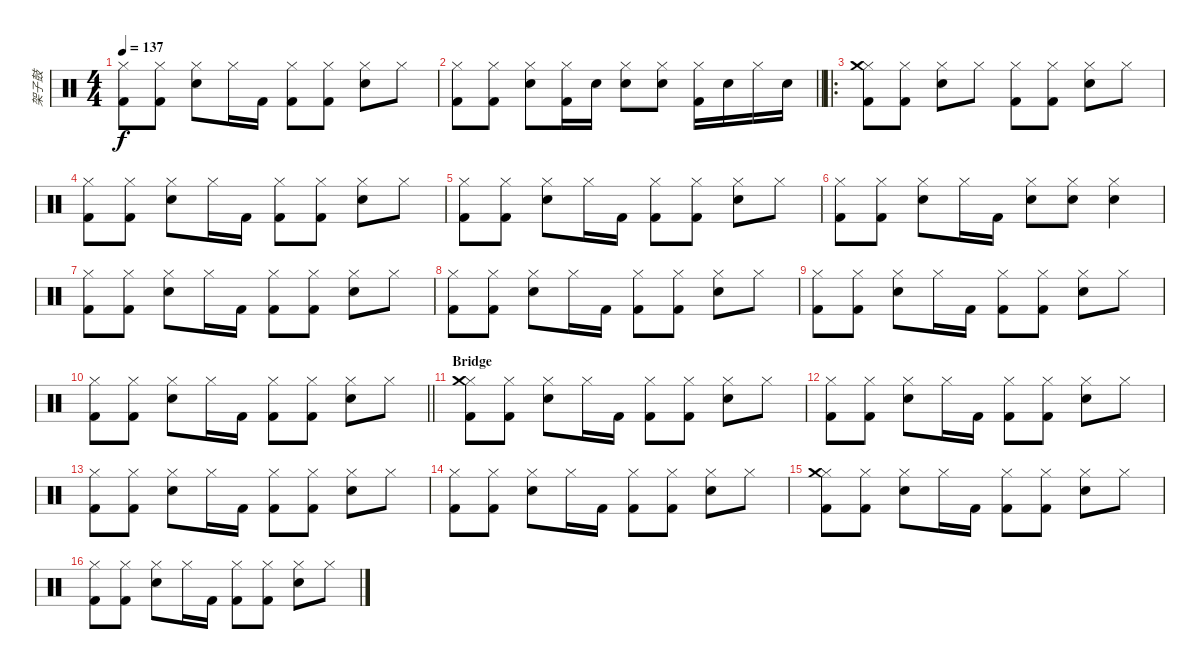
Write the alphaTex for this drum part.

\track ("架子鼓" "架子鼓") {instrument percussion}
\staff {score}
\articulation defaults
\ts (4 4)
\tempo 137
\clef neutral
\ks c
("Hi-Hat (closed)" "Kick (hit) 2").8{dy f} ("Hi-Hat (closed)" "Kick (hit) 2").8 ("Hi-Hat (closed)" "Snare (hit) 2").8 "Hi-Hat (closed)".16 "Kick (hit) 2".16 ("Hi-Hat (closed)" "Kick (hit) 2").8 ("Hi-Hat (closed)" "Kick (hit) 2").8 ("Hi-Hat (closed)" "Snare (hit) 2").8 "Hi-Hat (closed)".8 |
\barLineRight lightlight
("Hi-Hat (closed)" "Kick (hit) 2").8 ("Hi-Hat (closed)" "Kick (hit) 2").8 ("Hi-Hat (closed)" "Snare (hit) 2").8 ("Hi-Hat (closed)" "Kick (hit) 2").16 "Snare (hit) 2".16 ("Hi-Hat (closed)" "Snare (hit) 2").8 ("Hi-Hat (closed)" "Snare (hit) 2").8 ("Hi-Hat (closed)" "Kick (hit) 2").16 "Snare (hit) 2".16 "Hi-Hat (closed)".16 "Snare (hit) 2".16 |
\ro
("Hi-Hat (closed)" "Crash medium (hit)" "Kick (hit) 2").8 ("Hi-Hat (closed)" "Kick (hit) 2").8 ("Hi-Hat (closed)" "Snare (hit) 2").8 "Hi-Hat (closed)".8 ("Hi-Hat (closed)" "Kick (hit) 2").8 ("Hi-Hat (closed)" "Kick (hit) 2").8 ("Hi-Hat (closed)" "Snare (hit) 2").8 "Hi-Hat (closed)".8 |
("Hi-Hat (closed)" "Kick (hit) 2").8 ("Hi-Hat (closed)" "Kick (hit) 2").8 ("Hi-Hat (closed)" "Snare (hit) 2").8 "Hi-Hat (closed)".16 "Kick (hit) 2".16 ("Hi-Hat (closed)" "Kick (hit) 2").8 ("Hi-Hat (closed)" "Kick (hit) 2").8 ("Hi-Hat (closed)" "Snare (hit) 2").8 "Hi-Hat (closed)".8 |
("Hi-Hat (closed)" "Kick (hit) 2").8 ("Hi-Hat (closed)" "Kick (hit) 2").8 ("Hi-Hat (closed)" "Snare (hit) 2").8 "Hi-Hat (closed)".16 "Kick (hit) 2".16 ("Hi-Hat (closed)" "Kick (hit) 2").8 ("Hi-Hat (closed)" "Kick (hit) 2").8 ("Hi-Hat (closed)" "Snare (hit) 2").8 "Hi-Hat (closed)".8 |
("Hi-Hat (closed)" "Kick (hit) 2").8 ("Hi-Hat (closed)" "Kick (hit) 2").8 ("Hi-Hat (closed)" "Snare (hit) 2").8 "Hi-Hat (closed)".16 "Kick (hit) 2".16 ("Hi-Hat (closed)" "Snare (hit) 2").8 ("Hi-Hat (closed)" "Snare (hit) 2").8 ("Hi-Hat (closed)" "Snare (hit) 2").4 |
("Hi-Hat (closed)" "Kick (hit) 2").8 ("Hi-Hat (closed)" "Kick (hit) 2").8 ("Hi-Hat (closed)" "Snare (hit) 2").8 "Hi-Hat (closed)".16 "Kick (hit) 2".16 ("Hi-Hat (closed)" "Kick (hit) 2").8 ("Hi-Hat (closed)" "Kick (hit) 2").8 ("Hi-Hat (closed)" "Snare (hit) 2").8 "Hi-Hat (closed)".8 |
("Hi-Hat (closed)" "Kick (hit) 2").8 ("Hi-Hat (closed)" "Kick (hit) 2").8 ("Hi-Hat (closed)" "Snare (hit) 2").8 "Hi-Hat (closed)".16 "Kick (hit) 2".16 ("Hi-Hat (closed)" "Kick (hit) 2").8 ("Hi-Hat (closed)" "Kick (hit) 2").8 ("Hi-Hat (closed)" "Snare (hit) 2").8 "Hi-Hat (closed)".8 |
("Hi-Hat (closed)" "Kick (hit) 2").8 ("Hi-Hat (closed)" "Kick (hit) 2").8 ("Hi-Hat (closed)" "Snare (hit) 2").8 "Hi-Hat (closed)".16 "Kick (hit) 2".16 ("Hi-Hat (closed)" "Kick (hit) 2").8 ("Hi-Hat (closed)" "Kick (hit) 2").8 ("Hi-Hat (closed)" "Snare (hit) 2").8 "Hi-Hat (closed)".8 |
\barLineRight lightlight
("Hi-Hat (closed)" "Kick (hit) 2").8 ("Hi-Hat (closed)" "Kick (hit) 2").8 ("Hi-Hat (closed)" "Snare (hit) 2").8 "Hi-Hat (closed)".16 "Kick (hit) 2".16 ("Hi-Hat (closed)" "Kick (hit) 2").8 ("Hi-Hat (closed)" "Kick (hit) 2").8 ("Hi-Hat (closed)" "Snare (hit) 2").8 "Hi-Hat (closed)".8 |
\section ("" "Bridge")
("Hi-Hat (closed)" "Crash medium (hit)" "Kick (hit) 2").8 ("Hi-Hat (closed)" "Kick (hit) 2").8 ("Hi-Hat (closed)" "Snare (hit) 2").8 "Hi-Hat (closed)".16 "Kick (hit) 2".16 ("Hi-Hat (closed)" "Kick (hit) 2").8 ("Hi-Hat (closed)" "Kick (hit) 2").8 ("Hi-Hat (closed)" "Snare (hit) 2").8 "Hi-Hat (closed)".8 |
("Hi-Hat (closed)" "Kick (hit) 2").8 ("Hi-Hat (closed)" "Kick (hit) 2").8 ("Hi-Hat (closed)" "Snare (hit) 2").8 "Hi-Hat (closed)".16 "Kick (hit) 2".16 ("Hi-Hat (closed)" "Kick (hit) 2").8 ("Hi-Hat (closed)" "Kick (hit) 2").8 ("Hi-Hat (closed)" "Snare (hit) 2").8 "Hi-Hat (closed)".8 |
("Hi-Hat (closed)" "Kick (hit) 2").8 ("Hi-Hat (closed)" "Kick (hit) 2").8 ("Hi-Hat (closed)" "Snare (hit) 2").8 "Hi-Hat (closed)".16 "Kick (hit) 2".16 ("Hi-Hat (closed)" "Kick (hit) 2").8 ("Hi-Hat (closed)" "Kick (hit) 2").8 ("Hi-Hat (closed)" "Snare (hit) 2").8 "Hi-Hat (closed)".8 |
("Hi-Hat (closed)" "Kick (hit) 2").8 ("Hi-Hat (closed)" "Kick (hit) 2").8 ("Hi-Hat (closed)" "Snare (hit) 2").8 "Hi-Hat (closed)".16 "Kick (hit) 2".16 ("Hi-Hat (closed)" "Kick (hit) 2").8 ("Hi-Hat (closed)" "Kick (hit) 2").8 ("Hi-Hat (closed)" "Snare (hit) 2").8 "Hi-Hat (closed)".8 |
("Hi-Hat (closed)" "Crash medium (hit)" "Kick (hit) 2").8 ("Hi-Hat (closed)" "Kick (hit) 2").8 ("Hi-Hat (closed)" "Snare (hit) 2").8 "Hi-Hat (closed)".16 "Kick (hit) 2".16 ("Hi-Hat (closed)" "Kick (hit) 2").8 ("Hi-Hat (closed)" "Kick (hit) 2").8 ("Hi-Hat (closed)" "Snare (hit) 2").8 "Hi-Hat (closed)".8 |
("Hi-Hat (closed)" "Kick (hit) 2").8 ("Hi-Hat (closed)" "Kick (hit) 2").8 ("Hi-Hat (closed)" "Snare (hit) 2").8 "Hi-Hat (closed)".16 "Kick (hit) 2".16 ("Hi-Hat (closed)" "Kick (hit) 2").8 ("Hi-Hat (closed)" "Kick (hit) 2").8 ("Hi-Hat (closed)" "Snare (hit) 2").8 "Hi-Hat (closed)".8
